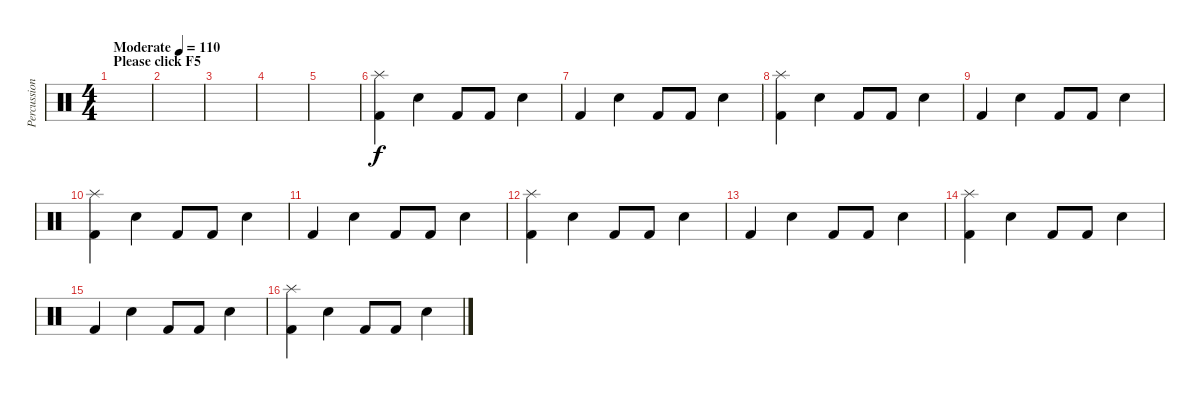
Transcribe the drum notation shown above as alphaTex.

\track ("Percussion" "Percussion") {instrument percussion}
\staff {score}
\articulation defaults
\ts (4 4)
\section ("" "Please click F5")
\tempo (110 "Moderate")
\clef neutral
\ks c
|
|
|
|
|
("Splash (hit)" "Kick (hit) 2").4 "Electric Snare (hit)".4 "Kick (hit) 2".8 "Kick (hit) 2".8 "Electric Snare (hit)".4 |
"Kick (hit) 2".4 "Electric Snare (hit)".4 "Kick (hit) 2".8 "Kick (hit) 2".8 "Electric Snare (hit)".4 |
("Splash (hit)" "Kick (hit) 2").4 "Electric Snare (hit)".4 "Kick (hit) 2".8 "Kick (hit) 2".8 "Electric Snare (hit)".4 |
"Kick (hit) 2".4 "Electric Snare (hit)".4 "Kick (hit) 2".8 "Kick (hit) 2".8 "Electric Snare (hit)".4 |
("Splash (hit)" "Kick (hit) 2").4 "Electric Snare (hit)".4 "Kick (hit) 2".8 "Kick (hit) 2".8 "Electric Snare (hit)".4 |
"Kick (hit) 2".4 "Electric Snare (hit)".4 "Kick (hit) 2".8 "Kick (hit) 2".8 "Electric Snare (hit)".4 |
("Splash (hit)" "Kick (hit) 2").4 "Electric Snare (hit)".4 "Kick (hit) 2".8 "Kick (hit) 2".8 "Electric Snare (hit)".4 |
"Kick (hit) 2".4 "Electric Snare (hit)".4 "Kick (hit) 2".8 "Kick (hit) 2".8 "Electric Snare (hit)".4 |
("Splash (hit)" "Kick (hit) 2").4 "Electric Snare (hit)".4 "Kick (hit) 2".8 "Kick (hit) 2".8 "Electric Snare (hit)".4 |
"Kick (hit) 2".4 "Electric Snare (hit)".4 "Kick (hit) 2".8 "Kick (hit) 2".8 "Electric Snare (hit)".4 |
("Splash (hit)" "Kick (hit) 2").4 "Electric Snare (hit)".4 "Kick (hit) 2".8 "Kick (hit) 2".8 "Electric Snare (hit)".4
